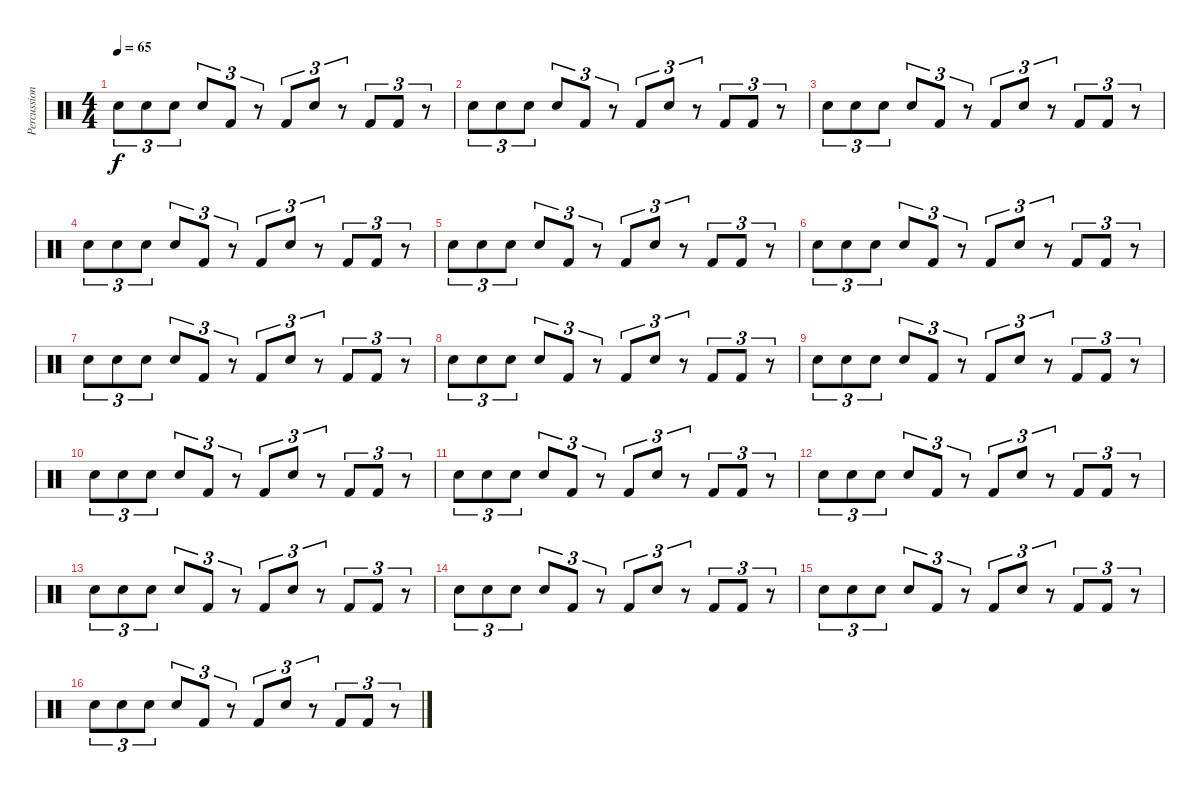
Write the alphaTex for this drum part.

\track ("Percussions" "Percussion") {instrument percussion}
\staff {score}
\articulation defaults
\ts (4 4)
\tempo 65
\clef neutral
\ks c "Electric Snare (hit)".8{tu (3 2) dy f} "Electric Snare (hit)".8{tu (3 2)} "Electric Snare (hit)".8{tu (3 2)} "Electric Snare (hit)".8{tu (3 2)} "Kick (hit) 2".8{tu (3 2)}
r.8{tu (3 2)} "Kick (hit) 2".8{tu (3 2)} "Electric Snare (hit)".8{tu (3 2)} r.8{tu (3 2)} "Kick (hit) 2".8{tu (3 2)} "Kick (hit) 2".8{tu (3 2)} r.8{tu (3 2)} |
"Electric Snare (hit)".8{tu (3 2)} "Electric Snare (hit)".8{tu (3 2)} "Electric Snare (hit)".8{tu (3 2)} "Electric Snare (hit)".8{tu (3 2)} "Kick (hit) 2".8{tu (3 2)} r.8{tu (3 2)} "Kick (hit) 2".8{tu (3 2)} "Electric Snare (hit)".8{tu (3 2)} r.8{tu (3 2)} "Kick (hit) 2".8{tu (3 2)} "Kick (hit) 2".8{tu (3 2)} r.8{tu (3 2)} |
"Electric Snare (hit)".8{tu (3 2)} "Electric Snare (hit)".8{tu (3 2)} "Electric Snare (hit)".8{tu (3 2)} "Electric Snare (hit)".8{tu (3 2)} "Kick (hit) 2".8{tu (3 2)} r.8{tu (3 2)} "Kick (hit) 2".8{tu (3 2)} "Electric Snare (hit)".8{tu (3 2)} r.8{tu (3 2)} "Kick (hit) 2".8{tu (3 2)} "Kick (hit) 2".8{tu (3 2)} r.8{tu (3 2)} |
"Electric Snare (hit)".8{tu (3 2)} "Electric Snare (hit)".8{tu (3 2)} "Electric Snare (hit)".8{tu (3 2)} "Electric Snare (hit)".8{tu (3 2)} "Kick (hit) 2".8{tu (3 2)} r.8{tu (3 2)} "Kick (hit) 2".8{tu (3 2)} "Electric Snare (hit)".8{tu (3 2)} r.8{tu (3 2)} "Kick (hit) 2".8{tu (3 2)} "Kick (hit) 2".8{tu (3 2)} r.8{tu (3 2)} |
"Electric Snare (hit)".8{tu (3 2)} "Electric Snare (hit)".8{tu (3 2)} "Electric Snare (hit)".8{tu (3 2)} "Electric Snare (hit)".8{tu (3 2)} "Kick (hit) 2".8{tu (3 2)} r.8{tu (3 2)} "Kick (hit) 2".8{tu (3 2)} "Electric Snare (hit)".8{tu (3 2)} r.8{tu (3 2)} "Kick (hit) 2".8{tu (3 2)} "Kick (hit) 2".8{tu (3 2)} r.8{tu (3 2)} |
"Electric Snare (hit)".8{tu (3 2)} "Electric Snare (hit)".8{tu (3 2)} "Electric Snare (hit)".8{tu (3 2)} "Electric Snare (hit)".8{tu (3 2)} "Kick (hit) 2".8{tu (3 2)} r.8{tu (3 2)} "Kick (hit) 2".8{tu (3 2)} "Electric Snare (hit)".8{tu (3 2)} r.8{tu (3 2)} "Kick (hit) 2".8{tu (3 2)} "Kick (hit) 2".8{tu (3 2)} r.8{tu (3 2)} |
"Electric Snare (hit)".8{tu (3 2)} "Electric Snare (hit)".8{tu (3 2)} "Electric Snare (hit)".8{tu (3 2)} "Electric Snare (hit)".8{tu (3 2)} "Kick (hit) 2".8{tu (3 2)} r.8{tu (3 2)} "Kick (hit) 2".8{tu (3 2)} "Electric Snare (hit)".8{tu (3 2)} r.8{tu (3 2)} "Kick (hit) 2".8{tu (3 2)} "Kick (hit) 2".8{tu (3 2)} r.8{tu (3 2)} |
"Electric Snare (hit)".8{tu (3 2)} "Electric Snare (hit)".8{tu (3 2)} "Electric Snare (hit)".8{tu (3 2)} "Electric Snare (hit)".8{tu (3 2)} "Kick (hit) 2".8{tu (3 2)} r.8{tu (3 2)} "Kick (hit) 2".8{tu (3 2)} "Electric Snare (hit)".8{tu (3 2)} r.8{tu (3 2)} "Kick (hit) 2".8{tu (3 2)} "Kick (hit) 2".8{tu (3 2)} r.8{tu (3 2)} |
"Electric Snare (hit)".8{tu (3 2)} "Electric Snare (hit)".8{tu (3 2)} "Electric Snare (hit)".8{tu (3 2)} "Electric Snare (hit)".8{tu (3 2)} "Kick (hit) 2".8{tu (3 2)} r.8{tu (3 2)} "Kick (hit) 2".8{tu (3 2)} "Electric Snare (hit)".8{tu (3 2)} r.8{tu (3 2)} "Kick (hit) 2".8{tu (3 2)} "Kick (hit) 2".8{tu (3 2)} r.8{tu (3 2)} |
"Electric Snare (hit)".8{tu (3 2)} "Electric Snare (hit)".8{tu (3 2)} "Electric Snare (hit)".8{tu (3 2)} "Electric Snare (hit)".8{tu (3 2)} "Kick (hit) 2".8{tu (3 2)} r.8{tu (3 2)} "Kick (hit) 2".8{tu (3 2)} "Electric Snare (hit)".8{tu (3 2)} r.8{tu (3 2)} "Kick (hit) 2".8{tu (3 2)} "Kick (hit) 2".8{tu (3 2)} r.8{tu (3 2)} |
"Electric Snare (hit)".8{tu (3 2)} "Electric Snare (hit)".8{tu (3 2)} "Electric Snare (hit)".8{tu (3 2)} "Electric Snare (hit)".8{tu (3 2)} "Kick (hit) 2".8{tu (3 2)} r.8{tu (3 2)} "Kick (hit) 2".8{tu (3 2)} "Electric Snare (hit)".8{tu (3 2)} r.8{tu (3 2)} "Kick (hit) 2".8{tu (3 2)} "Kick (hit) 2".8{tu (3 2)} r.8{tu (3 2)} |
"Electric Snare (hit)".8{tu (3 2)} "Electric Snare (hit)".8{tu (3 2)} "Electric Snare (hit)".8{tu (3 2)} "Electric Snare (hit)".8{tu (3 2)} "Kick (hit) 2".8{tu (3 2)} r.8{tu (3 2)} "Kick (hit) 2".8{tu (3 2)} "Electric Snare (hit)".8{tu (3 2)} r.8{tu (3 2)} "Kick (hit) 2".8{tu (3 2)} "Kick (hit) 2".8{tu (3 2)} r.8{tu (3 2)} |
"Electric Snare (hit)".8{tu (3 2)} "Electric Snare (hit)".8{tu (3 2)} "Electric Snare (hit)".8{tu (3 2)} "Electric Snare (hit)".8{tu (3 2)} "Kick (hit) 2".8{tu (3 2)} r.8{tu (3 2)} "Kick (hit) 2".8{tu (3 2)} "Electric Snare (hit)".8{tu (3 2)} r.8{tu (3 2)} "Kick (hit) 2".8{tu (3 2)} "Kick (hit) 2".8{tu (3 2)} r.8{tu (3 2)} |
"Electric Snare (hit)".8{tu (3 2)} "Electric Snare (hit)".8{tu (3 2)} "Electric Snare (hit)".8{tu (3 2)} "Electric Snare (hit)".8{tu (3 2)} "Kick (hit) 2".8{tu (3 2)} r.8{tu (3 2)} "Kick (hit) 2".8{tu (3 2)} "Electric Snare (hit)".8{tu (3 2)} r.8{tu (3 2)} "Kick (hit) 2".8{tu (3 2)} "Kick (hit) 2".8{tu (3 2)} r.8{tu (3 2)} |
"Electric Snare (hit)".8{tu (3 2)} "Electric Snare (hit)".8{tu (3 2)} "Electric Snare (hit)".8{tu (3 2)} "Electric Snare (hit)".8{tu (3 2)} "Kick (hit) 2".8{tu (3 2)} r.8{tu (3 2)} "Kick (hit) 2".8{tu (3 2)} "Electric Snare (hit)".8{tu (3 2)} r.8{tu (3 2)} "Kick (hit) 2".8{tu (3 2)} "Kick (hit) 2".8{tu (3 2)} r.8{tu (3 2)} |
"Electric Snare (hit)".8{tu (3 2)} "Electric Snare (hit)".8{tu (3 2)} "Electric Snare (hit)".8{tu (3 2)} "Electric Snare (hit)".8{tu (3 2)} "Kick (hit) 2".8{tu (3 2)} r.8{tu (3 2)} "Kick (hit) 2".8{tu (3 2)} "Electric Snare (hit)".8{tu (3 2)} r.8{tu (3 2)} "Kick (hit) 2".8{tu (3 2)} "Kick (hit) 2".8{tu (3 2)} r.8{tu (3 2)}
